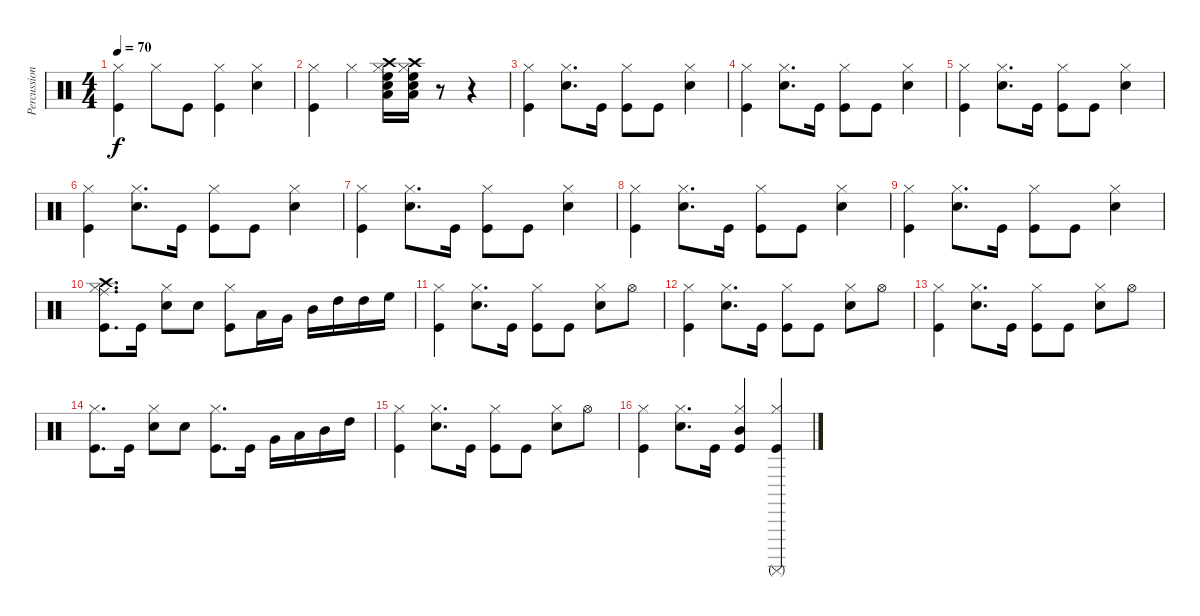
\track ("Percussion" "Percussion") {instrument percussion}
\staff {score}
\articulation defaults
\ts (4 4)
\tempo 70
\clef neutral
\ks c
("Kick (hit)" "Hi-Hat (closed)").4{dy f} "Hi-Hat (closed)".8 "Kick (hit)".8 ("Kick (hit)" "Hi-Hat (closed)").4 ("Electric Snare (hit)" "Hi-Hat (closed)").4 |
("Kick (hit)" "Hi-Hat (closed)").4 "Hi-Hat (closed)".4 ("Electric Snare (hit)" "Hi-Hat (closed)" "Crash high (hit)" "Low Floor Tom (hit)" "High Floor Tom (hit)").16 ("Electric Snare (hit)" "Hi-Hat (closed)" "Crash high (hit)" "Low Floor Tom (hit)" "High Floor Tom (hit)").16 r.8 r.4 |
("Kick (hit)" "Hi-Hat (closed)").4 ("Electric Snare (hit)" "Hi-Hat (closed)").8{d} "Kick (hit)".16 ("Kick (hit)" "Hi-Hat (closed)").8 "Kick (hit)".8 ("Electric Snare (hit)" "Hi-Hat (closed)").4 |
("Kick (hit)" "Hi-Hat (closed)").4 ("Electric Snare (hit)" "Hi-Hat (closed)").8{d} "Kick (hit)".16 ("Kick (hit)" "Hi-Hat (closed)").8 "Kick (hit)".8 ("Electric Snare (hit)" "Hi-Hat (closed)").4 |
("Kick (hit)" "Hi-Hat (closed)").4 ("Electric Snare (hit)" "Hi-Hat (closed)").8{d} "Kick (hit)".16 ("Kick (hit)" "Hi-Hat (closed)").8 "Kick (hit)".8 ("Electric Snare (hit)" "Hi-Hat (closed)").4 |
("Kick (hit)" "Hi-Hat (closed)").4 ("Electric Snare (hit)" "Hi-Hat (closed)").8{d} "Kick (hit)".16 ("Kick (hit)" "Hi-Hat (closed)").8 "Kick (hit)".8 ("Electric Snare (hit)" "Hi-Hat (closed)").4 |
("Kick (hit)" "Hi-Hat (closed)").4 ("Electric Snare (hit)" "Hi-Hat (closed)").8{d} "Kick (hit)".16 ("Kick (hit)" "Hi-Hat (closed)").8 "Kick (hit)".8 ("Electric Snare (hit)" "Hi-Hat (closed)").4 |
("Kick (hit)" "Hi-Hat (closed)").4 ("Electric Snare (hit)" "Hi-Hat (closed)").8{d} "Kick (hit)".16 ("Kick (hit)" "Hi-Hat (closed)").8 "Kick (hit)".8 ("Electric Snare (hit)" "Hi-Hat (closed)").4 |
("Kick (hit)" "Hi-Hat (closed)").4 ("Electric Snare (hit)" "Hi-Hat (closed)").8{d} "Kick (hit)".16 ("Kick (hit)" "Hi-Hat (closed)").8 "Kick (hit)".8 ("Electric Snare (hit)" "Hi-Hat (closed)").4 |
("Kick (hit)" "Hi-Hat (closed)" "Crash high (hit)" "Ride (middle)").8{d} "Kick (hit)".16 ("Electric Snare (hit)" "Hi-Hat (closed)").8 "Electric Snare (hit)".8 ("Kick (hit)" "Hi-Hat (closed)").8 "Low Floor Tom (hit)".16 "Very Low Tom (hit)".16 "Mid Tom (hit)".16 "High Tom (hit)".16 "High Tom (hit)".16 "High Floor Tom (hit)".16 |
("Kick (hit)" "Hi-Hat (closed)").4 ("Electric Snare (hit)" "Hi-Hat (closed)").8{d} "Kick (hit)".16 ("Kick (hit)" "Hi-Hat (closed)").8 "Kick (hit)".8 ("Electric Snare (hit)" "Hi-Hat (closed)").8 "Hi-Hat (open)".8 |
("Kick (hit)" "Hi-Hat (closed)").4 ("Electric Snare (hit)" "Hi-Hat (closed)").8{d} "Kick (hit)".16 ("Kick (hit)" "Hi-Hat (closed)").8 "Kick (hit)".8 ("Electric Snare (hit)" "Hi-Hat (closed)").8 "Hi-Hat (open)".8 |
("Kick (hit)" "Hi-Hat (closed)").4 ("Electric Snare (hit)" "Hi-Hat (closed)").8{d} "Kick (hit)".16 ("Kick (hit)" "Hi-Hat (closed)").8 "Kick (hit)".8 ("Electric Snare (hit)" "Hi-Hat (closed)").8 "Hi-Hat (open)".8 |
("Kick (hit)" "Hi-Hat (closed)").8{d} "Kick (hit)".16 ("Electric Snare (hit)" "Hi-Hat (closed)").8 "Electric Snare (hit)".8 ("Kick (hit)" "Hi-Hat (closed)").8{d} "Kick (hit)".16 "Very Low Tom (hit)".16 "Low Tom (hit)".16 "Mid Tom (hit)".16 "High Tom (hit)".16 |
("Kick (hit)" "Hi-Hat (closed)").4 ("Electric Snare (hit)" "Hi-Hat (closed)").8{d} "Kick (hit)".16 ("Kick (hit)" "Hi-Hat (closed)").8 "Kick (hit)".8 ("Electric Snare (hit)" "Hi-Hat (closed)").8 "Hi-Hat (open)".8 |
("Kick (hit)" "Hi-Hat (closed)").4 ("Electric Snare (hit)" "Hi-Hat (closed)").8{d} "Kick (hit)".16 ("Kick (hit)" "Hi-Hat (closed)" "Mid Tom (hit)").4 ("Kick (hit)" "Hi-Hat (closed)" "Surdo (mute)").4
